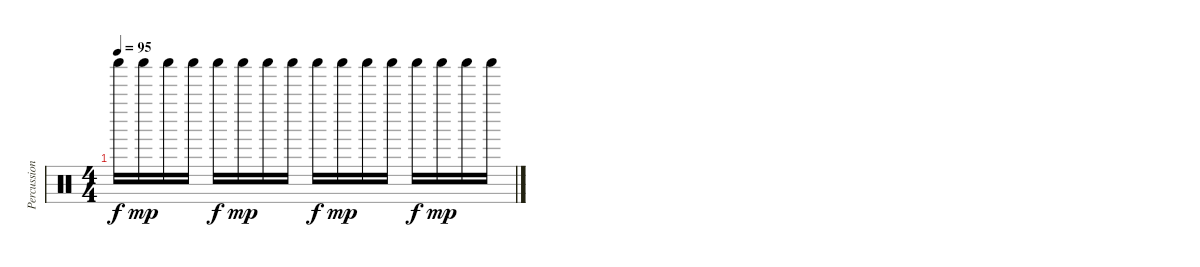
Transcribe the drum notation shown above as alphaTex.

\track ("Percussion" "Percussion") {instrument percussion}
\staff {score}
\articulation defaults
\ts (4 4)
\tempo 95
\clef neutral
\ks c "Shaker (hit)".16{dy f} "Shaker (hit)".16{dy mp} "Shaker (hit)".16 "Shaker (hit)".16 "Shaker (hit)".16{dy f} "Shaker (hit)".16{dy mp} "Shaker (hit)".16 "Shaker (hit)".16 "Shaker (hit)".16{dy f} "Shaker (hit)".16{dy mp} "Shaker (hit)".16 "Shaker (hit)".16 "Shaker (hit)".16{dy f} "Shaker (hit)".16{dy mp} "Shaker (hit)".16 "Shaker (hit)".16
